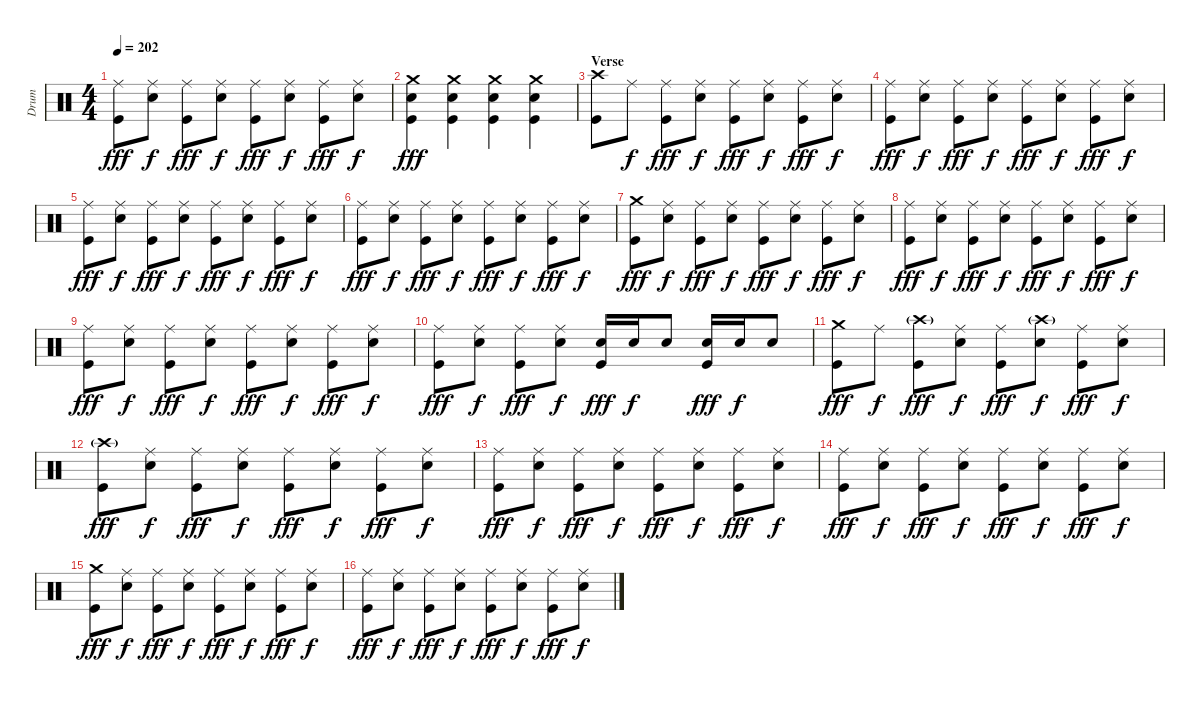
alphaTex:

\track ("Drum" "Drum") {instrument percussion}
\staff {score}
\articulation defaults
\ts (4 4)
\tempo 202
\clef neutral
\ks c
("Ride (middle)" "Kick (hit)").8{dy fff} ("Ride (middle)" "Electric Snare (hit)").8{dy f} ("Ride (middle)" "Kick (hit)").8{dy fff} ("Ride (middle)" "Electric Snare (hit)").8{dy f} ("Ride (middle)" "Kick (hit)").8{dy fff} ("Ride (middle)" "Electric Snare (hit)").8{dy f} ("Ride (middle)" "Kick (hit)").8{dy fff} ("Ride (middle)" "Electric Snare (hit)").8{dy f} |
("Crash medium (hit)" "Electric Snare (hit)" "Kick (hit)").4{dy fff} ("Crash medium (hit)" "Electric Snare (hit)" "Kick (hit)").4 ("Crash medium (hit)" "Electric Snare (hit)" "Kick (hit)").4 ("Crash medium (hit)" "Electric Snare (hit)" "Kick (hit)").4 |
\section ("" "Verse")
("Crash high (hit)" "Kick (hit)").8 "Ride (middle)".8{dy f} ("Ride (middle)" "Kick (hit)").8{dy fff} ("Ride (middle)" "Electric Snare (hit)").8{dy f} ("Ride (middle)" "Kick (hit)").8{dy fff} ("Ride (middle)" "Electric Snare (hit)").8{dy f} ("Ride (middle)" "Kick (hit)").8{dy fff} ("Ride (middle)" "Electric Snare (hit)").8{dy f} |
("Ride (middle)" "Kick (hit)").8{dy fff} ("Ride (middle)" "Electric Snare (hit)").8{dy f} ("Ride (middle)" "Kick (hit)").8{dy fff} ("Ride (middle)" "Electric Snare (hit)").8{dy f} ("Ride (middle)" "Kick (hit)").8{dy fff} ("Ride (middle)" "Electric Snare (hit)").8{dy f} ("Ride (middle)" "Kick (hit)").8{dy fff} ("Ride (middle)" "Electric Snare (hit)").8{dy f} |
("Ride (middle)" "Kick (hit)").8{dy fff} ("Ride (middle)" "Electric Snare (hit)").8{dy f} ("Ride (middle)" "Kick (hit)").8{dy fff} ("Ride (middle)" "Electric Snare (hit)").8{dy f} ("Ride (middle)" "Kick (hit)").8{dy fff} ("Ride (middle)" "Electric Snare (hit)").8{dy f} ("Ride (middle)" "Kick (hit)").8{dy fff} ("Ride (middle)" "Electric Snare (hit)").8{dy f} |
("Ride (middle)" "Kick (hit)").8{dy fff} ("Ride (middle)" "Electric Snare (hit)").8{dy f} ("Ride (middle)" "Kick (hit)").8{dy fff} ("Ride (middle)" "Electric Snare (hit)").8{dy f} ("Ride (middle)" "Kick (hit)").8{dy fff} ("Ride (middle)" "Electric Snare (hit)").8{dy f} ("Ride (middle)" "Kick (hit)").8{dy fff} ("Ride (middle)" "Electric Snare (hit)").8{dy f} |
("Crash medium (hit)" "Kick (hit)").8{dy fff} ("Ride (middle)" "Electric Snare (hit)").8{dy f} ("Ride (middle)" "Kick (hit)").8{dy fff} ("Ride (middle)" "Electric Snare (hit)").8{dy f} ("Ride (middle)" "Kick (hit)").8{dy fff} ("Ride (middle)" "Electric Snare (hit)").8{dy f} ("Ride (middle)" "Kick (hit)").8{dy fff} ("Ride (middle)" "Electric Snare (hit)").8{dy f} |
("Ride (middle)" "Kick (hit)").8{dy fff} ("Ride (middle)" "Electric Snare (hit)").8{dy f} ("Ride (middle)" "Kick (hit)").8{dy fff} ("Ride (middle)" "Electric Snare (hit)").8{dy f} ("Ride (middle)" "Kick (hit)").8{dy fff} ("Ride (middle)" "Electric Snare (hit)").8{dy f} ("Ride (middle)" "Kick (hit)").8{dy fff} ("Ride (middle)" "Electric Snare (hit)").8{dy f} |
("Ride (middle)" "Kick (hit)").8{dy fff} ("Ride (middle)" "Electric Snare (hit)").8{dy f} ("Ride (middle)" "Kick (hit)").8{dy fff} ("Ride (middle)" "Electric Snare (hit)").8{dy f} ("Ride (middle)" "Kick (hit)").8{dy fff} ("Ride (middle)" "Electric Snare (hit)").8{dy f} ("Ride (middle)" "Kick (hit)").8{dy fff} ("Ride (middle)" "Electric Snare (hit)").8{dy f} |
("Ride (middle)" "Kick (hit)").8{dy fff} ("Ride (middle)" "Electric Snare (hit)").8{dy f} ("Ride (middle)" "Kick (hit)").8{dy fff} ("Ride (middle)" "Electric Snare (hit)").8{dy f} ("Electric Snare (hit)" "Kick (hit)").16{dy fff} "Electric Snare (hit)".16{dy f} "Electric Snare (hit)".8 ("Electric Snare (hit)" "Kick (hit)").16{dy fff} "Electric Snare (hit)".16{dy f} "Electric Snare (hit)".8 |
("Crash medium (hit)" "Kick (hit)").8{dy fff} "Ride (middle)".8{dy f} ("Crash high (hit)"{g} "Kick (hit)").8{dy fff} ("Ride (middle)" "Electric Snare (hit)").8{dy f} ("Ride (middle)" "Kick (hit)").8{dy fff} ("Crash high (hit)"{g} "Electric Snare (hit)").8{dy f} ("Ride (middle)" "Kick (hit)").8{dy fff} ("Ride (middle)" "Electric Snare (hit)").8{dy f} |
("Crash high (hit)"{g} "Kick (hit)").8{dy fff} ("Ride (middle)" "Electric Snare (hit)").8{dy f} ("Ride (middle)" "Kick (hit)").8{dy fff} ("Ride (middle)" "Electric Snare (hit)").8{dy f} ("Ride (middle)" "Kick (hit)").8{dy fff} ("Ride (middle)" "Electric Snare (hit)").8{dy f} ("Ride (middle)" "Kick (hit)").8{dy fff} ("Ride (middle)" "Electric Snare (hit)").8{dy f} |
("Ride (middle)" "Kick (hit)").8{dy fff} ("Ride (middle)" "Electric Snare (hit)").8{dy f} ("Ride (middle)" "Kick (hit)").8{dy fff} ("Ride (middle)" "Electric Snare (hit)").8{dy f} ("Ride (middle)" "Kick (hit)").8{dy fff} ("Ride (middle)" "Electric Snare (hit)").8{dy f} ("Ride (middle)" "Kick (hit)").8{dy fff} ("Ride (middle)" "Electric Snare (hit)").8{dy f} |
("Ride (middle)" "Kick (hit)").8{dy fff} ("Ride (middle)" "Electric Snare (hit)").8{dy f} ("Ride (middle)" "Kick (hit)").8{dy fff} ("Ride (middle)" "Electric Snare (hit)").8{dy f} ("Ride (middle)" "Kick (hit)").8{dy fff} ("Ride (middle)" "Electric Snare (hit)").8{dy f} ("Ride (middle)" "Kick (hit)").8{dy fff} ("Ride (middle)" "Electric Snare (hit)").8{dy f} |
("Crash medium (hit)" "Kick (hit)").8{dy fff} ("Ride (middle)" "Electric Snare (hit)").8{dy f} ("Ride (middle)" "Kick (hit)").8{dy fff} ("Ride (middle)" "Electric Snare (hit)").8{dy f} ("Ride (middle)" "Kick (hit)").8{dy fff} ("Ride (middle)" "Electric Snare (hit)").8{dy f} ("Ride (middle)" "Kick (hit)").8{dy fff} ("Ride (middle)" "Electric Snare (hit)").8{dy f} |
("Ride (middle)" "Kick (hit)").8{dy fff} ("Ride (middle)" "Electric Snare (hit)").8{dy f} ("Ride (middle)" "Kick (hit)").8{dy fff} ("Ride (middle)" "Electric Snare (hit)").8{dy f} ("Ride (middle)" "Kick (hit)").8{dy fff} ("Ride (middle)" "Electric Snare (hit)").8{dy f} ("Ride (middle)" "Kick (hit)").8{dy fff} ("Ride (middle)" "Electric Snare (hit)").8{dy f}
